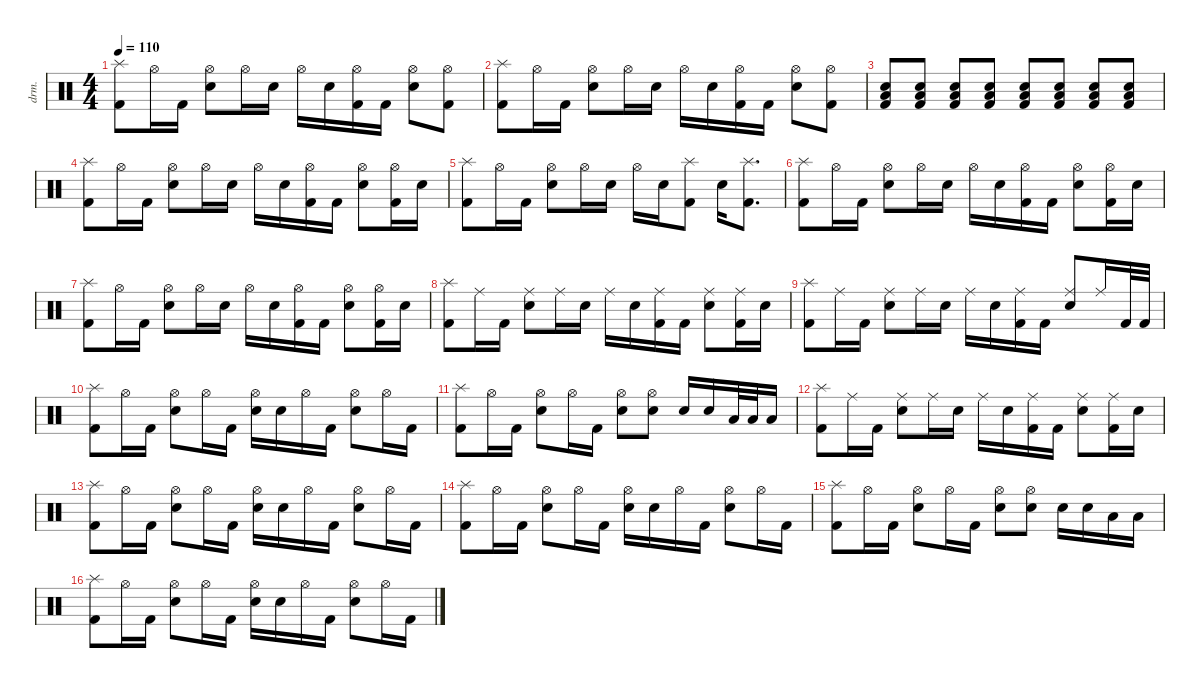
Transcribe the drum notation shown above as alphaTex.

\defaultSystemsLayout 4
\hideDynamics
\bracketExtendMode nobrackets
\track ("Drumkit" "drm.") {instrument percussion}
\staff {score}
\articulation defaults
\ts (4 4)
\tempo 110
\clef neutral
\ks c
("Splash (hit)" "Kick (hit) 2").8{dy f beam Down} "Hi-Hat (open)".16{beam Down} "Kick (hit) 2".16{beam Down} ("Hi-Hat (open)" "Snare (hit) 2").8{beam Down} "Hi-Hat (open)".16{beam Down} "Snare (hit) 2".16{beam Down} "Hi-Hat (open)".16{beam Down} "Snare (hit) 2".16{beam Down} ("Hi-Hat (open)" "Kick (hit) 2").16{beam Down} "Kick (hit) 2".16{beam Down} ("Hi-Hat (open)" "Snare (hit) 2").8{beam Down} ("Hi-Hat (open)" "Kick (hit) 2").8{beam Down} |
("Splash (hit)" "Kick (hit) 2").8{beam Down} "Hi-Hat (open)".16{beam Down} "Kick (hit) 2".16{beam Down} ("Hi-Hat (open)" "Snare (hit) 2").8{beam Down} "Hi-Hat (open)".16{beam Down} "Snare (hit) 2".16{beam Down} "Hi-Hat (open)".16{beam Down} "Snare (hit) 2".16{beam Down} ("Hi-Hat (open)" "Kick (hit) 2").16{beam Down} "Kick (hit) 2".16{beam Down} ("Hi-Hat (open)" "Snare (hit) 2").8{beam Down} ("Hi-Hat (open)" "Kick (hit) 2").8{beam Down} |
("Kick (hit) 2" "Low Tom (hit)" "Snare (hit) 2").8{beam Up} ("Kick (hit) 2" "Low Tom (hit)" "Snare (hit) 2").8{beam Up} ("Kick (hit) 2" "Low Tom (hit)" "Snare (hit) 2").8{beam Up} ("Kick (hit) 2" "Low Tom (hit)" "Snare (hit) 2").8{beam Up} ("Kick (hit) 2" "Low Tom (hit)" "Snare (hit) 2").8{beam Up} ("Kick (hit) 2" "Low Tom (hit)" "Snare (hit) 2").8{beam Up} ("Kick (hit) 2" "Low Tom (hit)" "Snare (hit) 2").8{beam Up} ("Kick (hit) 2" "Low Tom (hit)" "Snare (hit) 2").8{beam Up} |
("Splash (hit)" "Kick (hit) 2").8{beam Down} "Hi-Hat (open)".16{beam Down} "Kick (hit) 2".16{beam Down} ("Hi-Hat (open)" "Snare (hit) 2").8{beam Down} "Hi-Hat (open)".16{beam Down} "Snare (hit) 2".16{beam Down} "Hi-Hat (open)".16{beam Down} "Snare (hit) 2".16{beam Down} ("Hi-Hat (open)" "Kick (hit) 2").16{beam Down} "Kick (hit) 2".16{beam Down} ("Hi-Hat (open)" "Snare (hit) 2").8{beam Down} ("Hi-Hat (open)" "Kick (hit) 2").16{beam Down} "Snare (hit) 2".16{beam Down} |
("Splash (hit)" "Kick (hit) 2").8{beam Down} "Hi-Hat (open)".16{beam Down} "Kick (hit) 2".16{beam Down} ("Hi-Hat (open)" "Snare (hit) 2").8{beam Down} "Hi-Hat (open)".16{beam Down} "Snare (hit) 2".16{beam Down} "Hi-Hat (open)".16{beam Down} "Snare (hit) 2".16{beam Down} ("Kick (hit) 2" "Splash (hit)").8{beam Down} "Snare (hit) 2".16{beam Down} ("Kick (hit) 2" "Splash (hit)").8{d beam Down} |
("Splash (hit)" "Kick (hit) 2").8{beam Down} "Hi-Hat (open)".16{beam Down} "Kick (hit) 2".16{beam Down} ("Hi-Hat (open)" "Snare (hit) 2").8{beam Down} "Hi-Hat (open)".16{beam Down} "Snare (hit) 2".16{beam Down} "Hi-Hat (open)".16{beam Down} "Snare (hit) 2".16{beam Down} ("Hi-Hat (open)" "Kick (hit) 2").16{beam Down} "Kick (hit) 2".16{beam Down} ("Hi-Hat (open)" "Snare (hit) 2").8{beam Down} ("Hi-Hat (open)" "Kick (hit) 2").16{beam Down} "Snare (hit) 2".16{beam Down} |
("Splash (hit)" "Kick (hit) 2").8{beam Down} "Hi-Hat (open)".16{beam Down} "Kick (hit) 2".16{beam Down} ("Hi-Hat (open)" "Snare (hit) 2").8{beam Down} "Hi-Hat (open)".16{beam Down} "Snare (hit) 2".16{beam Down} "Hi-Hat (open)".16{beam Down} "Snare (hit) 2".16{beam Down} ("Hi-Hat (open)" "Kick (hit) 2").16{beam Down} "Kick (hit) 2".16{beam Down} ("Hi-Hat (open)" "Snare (hit) 2").8{beam Down} ("Hi-Hat (open)" "Kick (hit) 2").16{beam Down} "Snare (hit) 2".16{beam Down} |
("Splash (hit)" "Kick (hit) 2").8{beam Down} "Ride (middle)".16{beam Down} "Kick (hit) 2".16{beam Down} ("Snare (hit) 2" "Ride (middle)").8{beam Down} "Ride (middle)".16{beam Down} "Snare (hit) 2".16{beam Down} "Ride (middle)".16{beam Down} "Snare (hit) 2".16{beam Down} ("Kick (hit) 2" "Ride (middle)").16{beam Down} "Kick (hit) 2".16{beam Down} ("Snare (hit) 2" "Ride (middle)").8{beam Down} ("Kick (hit) 2" "Ride (middle)").16{beam Down} "Snare (hit) 2".16{beam Down} |
("Splash (hit)" "Kick (hit) 2").8{beam Down} "Ride (middle)".16{beam Down} "Kick (hit) 2".16{beam Down} ("Snare (hit) 2" "Ride (middle)").8{beam Down} "Ride (middle)".16{beam Down} "Snare (hit) 2".16{beam Down} "Ride (middle)".16{beam Down} "Snare (hit) 2".16{beam Down} ("Kick (hit) 2" "Ride (middle)").16{beam Down} "Kick (hit) 2".16{beam Down} ("Snare (hit) 2" "Ride (middle)").8{beam Up} "Ride (middle)".16{beam Up} "Kick (hit) 2".32{beam Up} "Kick (hit) 2".32{beam Up} |
("Splash (hit)" "Kick (hit) 2").8{beam Down} "Hi-Hat (open)".16{beam Down} "Kick (hit) 2".16{beam Down} ("Snare (hit) 2" "Hi-Hat (open)").8{beam Down} "Hi-Hat (open)".16{beam Down} "Kick (hit) 2".16{beam Down} ("Snare (hit) 2" "Hi-Hat (open)").16{beam Down} "Snare (hit) 2".16{beam Down} "Hi-Hat (open)".16{beam Down} "Kick (hit) 2".16{beam Down} ("Hi-Hat (open)" "Snare (hit) 2").8{beam Down} "Hi-Hat (open)".16{beam Down} "Kick (hit) 2".16{beam Down} |
("Splash (hit)" "Kick (hit) 2").8{beam Down} "Hi-Hat (open)".16{beam Down} "Kick (hit) 2".16{beam Down} ("Hi-Hat (open)" "Snare (hit) 2").8{beam Down} "Hi-Hat (open)".16{beam Down} "Kick (hit) 2".16{beam Down} ("Hi-Hat (open)" "Snare (hit) 2").8{beam Down} ("Hi-Hat (open)" "Snare (hit) 2").8{beam Down} "Snare (hit) 2".16{beam Up} "Snare (hit) 2".16{beam Up} "Low Tom (hit)".32{beam Up} "Low Tom (hit)".32{beam Up} "Low Tom (hit)".16{beam Up} |
("Splash (hit)" "Kick (hit) 2").8{beam Down} "Ride (middle)".16{beam Down} "Kick (hit) 2".16{beam Down} ("Snare (hit) 2" "Ride (middle)").8{beam Down} "Ride (middle)".16{beam Down} "Snare (hit) 2".16{beam Down} "Ride (middle)".16{beam Down} "Snare (hit) 2".16{beam Down} ("Kick (hit) 2" "Ride (middle)").16{beam Down} "Kick (hit) 2".16{beam Down} ("Snare (hit) 2" "Ride (middle)").8{beam Down} ("Kick (hit) 2" "Ride (middle)").16{beam Down} "Snare (hit) 2".16{beam Down} |
("Splash (hit)" "Kick (hit) 2").8{beam Down} "Hi-Hat (open)".16{beam Down} "Kick (hit) 2".16{beam Down} ("Snare (hit) 2" "Hi-Hat (open)").8{beam Down} "Hi-Hat (open)".16{beam Down} "Kick (hit) 2".16{beam Down} ("Snare (hit) 2" "Hi-Hat (open)").16{beam Down} "Snare (hit) 2".16{beam Down} "Hi-Hat (open)".16{beam Down} "Kick (hit) 2".16{beam Down} ("Hi-Hat (open)" "Snare (hit) 2").8{beam Down} "Hi-Hat (open)".16{beam Down} "Kick (hit) 2".16{beam Down} |
("Splash (hit)" "Kick (hit) 2").8{beam Down} "Hi-Hat (open)".16{beam Down} "Kick (hit) 2".16{beam Down} ("Snare (hit) 2" "Hi-Hat (open)").8{beam Down} "Hi-Hat (open)".16{beam Down} "Kick (hit) 2".16{beam Down} ("Snare (hit) 2" "Hi-Hat (open)").16{beam Down} "Snare (hit) 2".16{beam Down} "Hi-Hat (open)".16{beam Down} "Kick (hit) 2".16{beam Down} ("Hi-Hat (open)" "Snare (hit) 2").8{beam Down} "Hi-Hat (open)".16{beam Down} "Kick (hit) 2".16{beam Down} |
("Splash (hit)" "Kick (hit) 2").8{beam Down} "Hi-Hat (open)".16{beam Down} "Kick (hit) 2".16{beam Down} ("Hi-Hat (open)" "Snare (hit) 2").8{beam Down} "Hi-Hat (open)".16{beam Down} "Kick (hit) 2".16{beam Down} ("Hi-Hat (open)" "Snare (hit) 2").8{beam Down} ("Hi-Hat (open)" "Snare (hit) 2").8{beam Down} "Snare (hit) 2".16{beam Down} "Snare (hit) 2".16{beam Down} "Low Tom (hit)".16{beam Down} "Low Tom (hit)".16{beam Down} |
("Splash (hit)" "Kick (hit) 2").8{beam Down} "Hi-Hat (open)".16{beam Down} "Kick (hit) 2".16{beam Down} ("Snare (hit) 2" "Hi-Hat (open)").8{beam Down} "Hi-Hat (open)".16{beam Down} "Kick (hit) 2".16{beam Down} ("Snare (hit) 2" "Hi-Hat (open)").16{beam Down} "Snare (hit) 2".16{beam Down} "Hi-Hat (open)".16{beam Down} "Kick (hit) 2".16{beam Down} ("Hi-Hat (open)" "Snare (hit) 2").8{beam Down} "Hi-Hat (open)".16{beam Down} "Kick (hit) 2".16{beam Down}
